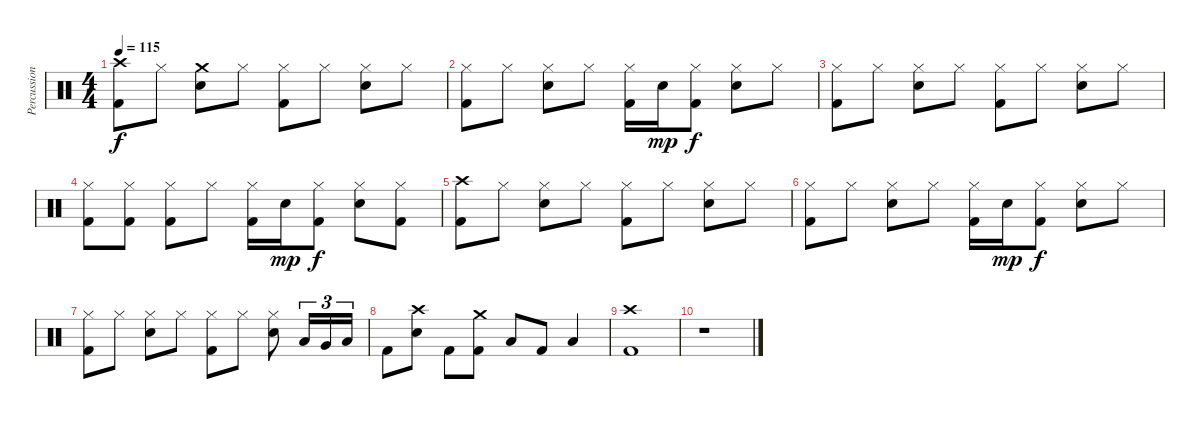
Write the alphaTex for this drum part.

\track ("Percussion" "Percussion") {instrument percussion}
\staff {score}
\articulation defaults
\ts (4 4)
\tempo 115
\clef neutral
\ks c
("Crash high (hit)" "Kick (hit) 2").8{dy f} "Hi-Hat (closed)".8 ("Crash medium (hit)" "Electric Snare (hit)").8 "Hi-Hat (closed)".8 ("Hi-Hat (closed)" "Kick (hit) 2").8 "Hi-Hat (closed)".8 ("Hi-Hat (closed)" "Electric Snare (hit)").8 "Hi-Hat (closed)".8 |
("Hi-Hat (closed)" "Kick (hit) 2").8 "Hi-Hat (closed)".8 ("Hi-Hat (closed)" "Electric Snare (hit)").8 "Hi-Hat (closed)".8 ("Hi-Hat (closed)" "Kick (hit) 2").16 "Electric Snare (hit)".16{dy mp} ("Hi-Hat (closed)" "Kick (hit) 2").8{dy f} ("Hi-Hat (closed)" "Electric Snare (hit)").8 "Hi-Hat (closed)".8 |
("Hi-Hat (closed)" "Kick (hit) 2").8 "Hi-Hat (closed)".8 ("Hi-Hat (closed)" "Electric Snare (hit)").8 "Hi-Hat (closed)".8 ("Hi-Hat (closed)" "Kick (hit) 2").8 "Hi-Hat (closed)".8 ("Hi-Hat (closed)" "Electric Snare (hit)").8 "Hi-Hat (closed)".8 |
("Hi-Hat (closed)" "Kick (hit) 2").8 ("Hi-Hat (closed)" "Kick (hit) 2").8 ("Hi-Hat (closed)" "Kick (hit) 2").8 "Hi-Hat (closed)".8 ("Hi-Hat (closed)" "Kick (hit) 2").16 "Electric Snare (hit)".16{dy mp} ("Hi-Hat (closed)" "Kick (hit) 2").8{dy f} ("Hi-Hat (closed)" "Electric Snare (hit)").8 ("Hi-Hat (closed)" "Kick (hit) 2").8 |
("Crash high (hit)" "Kick (hit) 2").8 "Hi-Hat (closed)".8 ("Hi-Hat (closed)" "Electric Snare (hit)").8 "Hi-Hat (closed)".8 ("Hi-Hat (closed)" "Kick (hit) 2").8 "Hi-Hat (closed)".8 ("Hi-Hat (closed)" "Electric Snare (hit)").8 "Hi-Hat (closed)".8 |
("Hi-Hat (closed)" "Kick (hit) 2").8 "Hi-Hat (closed)".8 ("Hi-Hat (closed)" "Electric Snare (hit)").8 "Hi-Hat (closed)".8 ("Hi-Hat (closed)" "Kick (hit) 2").16 "Electric Snare (hit)".16{dy mp} ("Hi-Hat (closed)" "Kick (hit) 2").8{dy f} ("Hi-Hat (closed)" "Electric Snare (hit)").8 "Hi-Hat (closed)".8 |
("Hi-Hat (closed)" "Kick (hit) 2").8 "Hi-Hat (closed)".8 ("Hi-Hat (closed)" "Electric Snare (hit)").8 "Hi-Hat (closed)".8 ("Hi-Hat (closed)" "Kick (hit) 2").8 "Hi-Hat (closed)".8 ("Hi-Hat (closed)" "Electric Snare (hit)").8 "Low Tom (hit)".16{tu (3 2)} "Very Low Tom (hit)".16{tu (3 2)} "Low Floor Tom (hit)".16{tu (3 2)} |
"Kick (hit) 2".8 ("Crash high (hit)" "Electric Snare (hit)").8 "Kick (hit) 2".8 ("Crash medium (hit)" "Kick (hit) 2").8 "Low Tom (hit)".8 "Kick (hit) 2".8 "Low Floor Tom (hit)".4 |
("Crash high (hit)" "Kick (hit) 2").1 |
r.1
